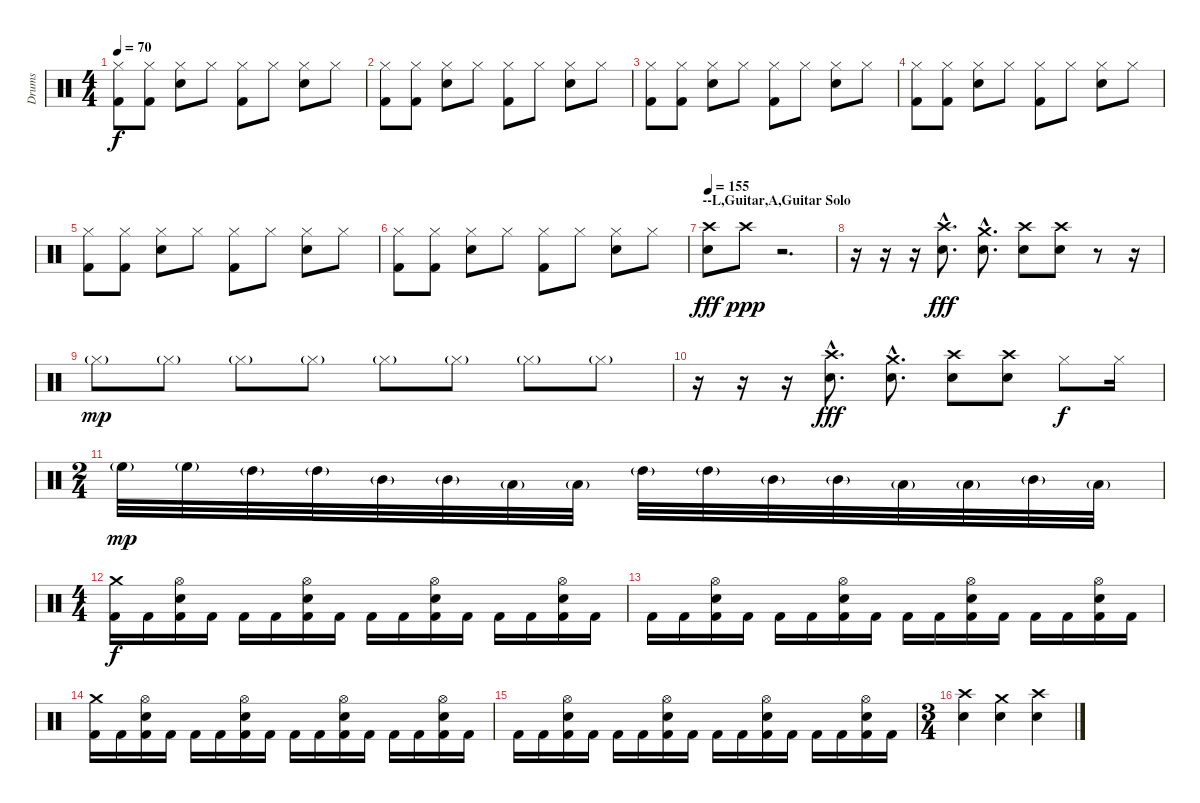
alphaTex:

\track ("Drums" "Drums") {instrument percussion}
\staff {score}
\articulation defaults
\ts (4 4)
\tempo 70
\clef neutral
\ks c
("Hi-Hat (closed)" "Kick (hit) 2").8{dy f} ("Hi-Hat (closed)" "Kick (hit) 2").8 ("Hi-Hat (closed)" "Electric Snare (hit)").8 "Hi-Hat (closed)".8 ("Hi-Hat (closed)" "Kick (hit) 2").8 "Hi-Hat (closed)".8 ("Hi-Hat (closed)" "Electric Snare (hit)").8 "Hi-Hat (closed)".8 |
("Hi-Hat (closed)" "Kick (hit) 2").8 ("Hi-Hat (closed)" "Kick (hit) 2").8 ("Hi-Hat (closed)" "Electric Snare (hit)").8 "Hi-Hat (closed)".8 ("Hi-Hat (closed)" "Kick (hit) 2").8 "Hi-Hat (closed)".8 ("Hi-Hat (closed)" "Electric Snare (hit)").8 "Hi-Hat (closed)".8 |
("Hi-Hat (closed)" "Kick (hit) 2").8 ("Hi-Hat (closed)" "Kick (hit) 2").8 ("Hi-Hat (closed)" "Electric Snare (hit)").8 "Hi-Hat (closed)".8 ("Hi-Hat (closed)" "Kick (hit) 2").8 "Hi-Hat (closed)".8 ("Hi-Hat (closed)" "Electric Snare (hit)").8 "Hi-Hat (closed)".8 |
("Hi-Hat (closed)" "Kick (hit) 2").8 ("Hi-Hat (closed)" "Kick (hit) 2").8 ("Hi-Hat (closed)" "Electric Snare (hit)").8 "Hi-Hat (closed)".8 ("Hi-Hat (closed)" "Kick (hit) 2").8 "Hi-Hat (closed)".8 ("Hi-Hat (closed)" "Electric Snare (hit)").8 "Hi-Hat (closed)".8 |
("Hi-Hat (closed)" "Kick (hit) 2").8 ("Hi-Hat (closed)" "Kick (hit) 2").8 ("Hi-Hat (closed)" "Electric Snare (hit)").8 "Hi-Hat (closed)".8 ("Hi-Hat (closed)" "Kick (hit) 2").8 "Hi-Hat (closed)".8 ("Hi-Hat (closed)" "Electric Snare (hit)").8 "Hi-Hat (closed)".8 |
("Hi-Hat (closed)" "Kick (hit) 2").8 ("Hi-Hat (closed)" "Kick (hit) 2").8 ("Hi-Hat (closed)" "Electric Snare (hit)").8 "Hi-Hat (closed)".8 ("Hi-Hat (closed)" "Kick (hit) 2").8 "Hi-Hat (closed)".8 ("Hi-Hat (closed)" "Electric Snare (hit)").8 "Hi-Hat (closed)".8 |
\section ("" "--L,Guitar,A,Guitar Solo")
\tempo 155
("Crash high (hit)" "Electric Snare (hit)").8{dy fff} "Crash high (hit)".8{dy ppp} r.2{d} |
r.16 r.16 r.16 ("Crash high (hit)"{hac} "Electric Snare (hit)"{hac}).8{d dy fff} ("Crash medium (hit)"{hac} "Electric Snare (hit)"{hac}).8{d} ("Crash high (hit)" "Electric Snare (hit)").8 ("Crash high (hit)" "Electric Snare (hit)").8 r.8 r.16 |
"Hi-Hat (closed)"{g}.8{dy mp} "Hi-Hat (closed)"{g}.8 "Hi-Hat (closed)"{g}.8 "Hi-Hat (closed)"{g}.8 "Hi-Hat (closed)"{g}.8 "Hi-Hat (closed)"{g}.8 "Hi-Hat (closed)"{g}.8 "Hi-Hat (closed)"{g}.8 |
r.16 r.16 r.16 ("Crash high (hit)"{hac} "Electric Snare (hit)"{hac}).8{d dy fff} ("Crash medium (hit)"{hac} "Electric Snare (hit)"{hac}).8{d} ("Crash high (hit)" "Electric Snare (hit)").8 ("Crash high (hit)" "Electric Snare (hit)").8 "Hi-Hat (closed)".8{dy f} "Hi-Hat (closed)".16 |
\ts (2 4)
"High Floor Tom (hit)"{g}.32{dy mp} "High Floor Tom (hit)"{g}.32 "High Tom (hit)"{g}.32 "High Tom (hit)"{g}.32 "Mid Tom (hit)"{g}.32 "Mid Tom (hit)"{g}.32 "Low Tom (hit)"{g}.32 "Low Tom (hit)"{g}.32 "High Tom (hit)"{g}.32 "High Tom (hit)"{g}.32 "Mid Tom (hit)"{g}.32 "Mid Tom (hit)"{g}.32 "Low Tom (hit)"{g}.32 "Low Tom (hit)"{g}.32 "Mid Tom (hit)"{g}.32 "Low Tom (hit)"{g}.32 |
\ts (4 4)
("Crash medium (hit)" "Kick (hit) 2").16{dy f} "Kick (hit) 2".16 ("Hi-Hat (open)" "Electric Snare (hit)" "Kick (hit) 2").16 "Kick (hit) 2".16 "Kick (hit) 2".16 "Kick (hit) 2".16 ("Hi-Hat (open)" "Electric Snare (hit)" "Kick (hit) 2").16 "Kick (hit) 2".16 "Kick (hit) 2".16 "Kick (hit) 2".16 ("Hi-Hat (open)" "Electric Snare (hit)" "Kick (hit) 2").16 "Kick (hit) 2".16 "Kick (hit) 2".16 "Kick (hit) 2".16 ("Hi-Hat (open)" "Electric Snare (hit)" "Kick (hit) 2").16 "Kick (hit) 2".16 |
"Kick (hit) 2".16 "Kick (hit) 2".16 ("Hi-Hat (open)" "Electric Snare (hit)" "Kick (hit) 2").16 "Kick (hit) 2".16 "Kick (hit) 2".16 "Kick (hit) 2".16 ("Hi-Hat (open)" "Electric Snare (hit)" "Kick (hit) 2").16 "Kick (hit) 2".16 "Kick (hit) 2".16 "Kick (hit) 2".16 ("Hi-Hat (open)" "Electric Snare (hit)" "Kick (hit) 2").16 "Kick (hit) 2".16 "Kick (hit) 2".16 "Kick (hit) 2".16 ("Hi-Hat (open)" "Electric Snare (hit)" "Kick (hit) 2").16 "Kick (hit) 2".16 |
("Crash medium (hit)" "Kick (hit) 2").16 "Kick (hit) 2".16 ("Hi-Hat (open)" "Electric Snare (hit)" "Kick (hit) 2").16 "Kick (hit) 2".16 "Kick (hit) 2".16 "Kick (hit) 2".16 ("Hi-Hat (open)" "Electric Snare (hit)" "Kick (hit) 2").16 "Kick (hit) 2".16 "Kick (hit) 2".16 "Kick (hit) 2".16 ("Hi-Hat (open)" "Electric Snare (hit)" "Kick (hit) 2").16 "Kick (hit) 2".16 "Kick (hit) 2".16 "Kick (hit) 2".16 ("Hi-Hat (open)" "Electric Snare (hit)" "Kick (hit) 2").16 "Kick (hit) 2".16 |
"Kick (hit) 2".16 "Kick (hit) 2".16 ("Hi-Hat (open)" "Electric Snare (hit)" "Kick (hit) 2").16 "Kick (hit) 2".16 "Kick (hit) 2".16 "Kick (hit) 2".16 ("Hi-Hat (open)" "Electric Snare (hit)" "Kick (hit) 2").16 "Kick (hit) 2".16 "Kick (hit) 2".16 "Kick (hit) 2".16 ("Hi-Hat (open)" "Electric Snare (hit)" "Kick (hit) 2").16 "Kick (hit) 2".16 "Kick (hit) 2".16 "Kick (hit) 2".16 ("Hi-Hat (open)" "Electric Snare (hit)" "Kick (hit) 2").16 "Kick (hit) 2".16 |
\ts (3 4)
("Crash high (hit)" "Electric Snare (hit)").4 ("Crash medium (hit)" "Electric Snare (hit)").4 ("Crash high (hit)" "Electric Snare (hit)").4
